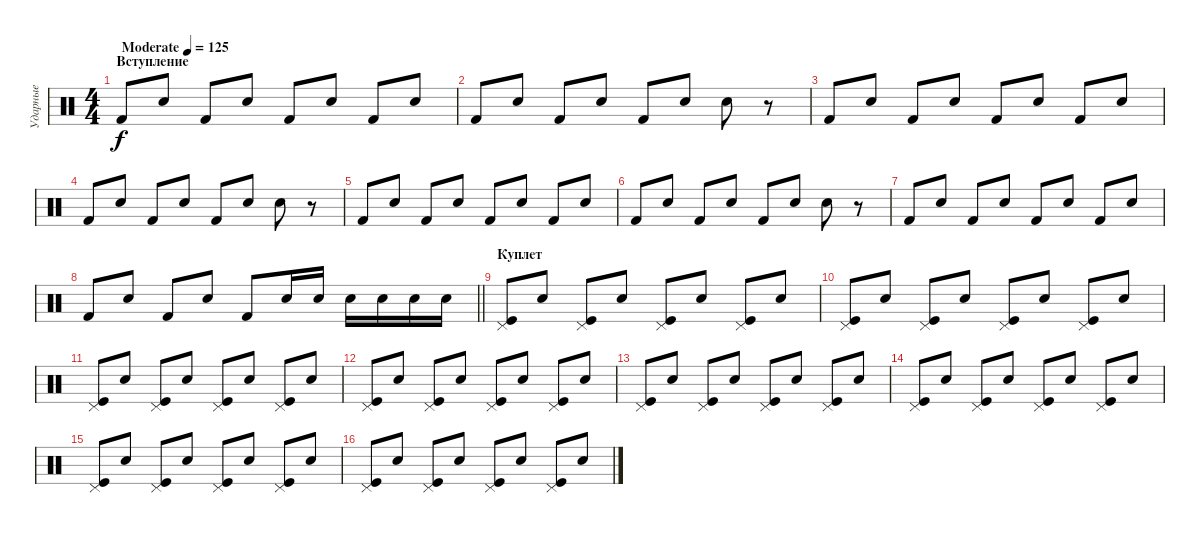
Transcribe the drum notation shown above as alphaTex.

\track ("Ударные" "Ударные") {instrument percussion}
\staff {score}
\articulation defaults
\ts (4 4)
\section ("" "Вступление")
\tempo (125 "Moderate")
\clef neutral
\ks c "Kick (hit) 2".8{dy f} "Electric Snare (hit)".8 "Kick (hit) 2".8 "Electric Snare (hit)".8 "Kick (hit) 2".8 "Electric Snare (hit)".8 "Kick (hit) 2".8 "Electric Snare (hit)".8
|
"Kick (hit) 2".8 "Electric Snare (hit)".8 "Kick (hit) 2".8 "Electric Snare (hit)".8 "Kick (hit) 2".8 "Electric Snare (hit)".8 "Electric Snare (hit)".8 r.8 |
"Kick (hit) 2".8 "Electric Snare (hit)".8 "Kick (hit) 2".8 "Electric Snare (hit)".8 "Kick (hit) 2".8 "Electric Snare (hit)".8 "Kick (hit) 2".8 "Electric Snare (hit)".8 |
"Kick (hit) 2".8 "Electric Snare (hit)".8 "Kick (hit) 2".8 "Electric Snare (hit)".8 "Kick (hit) 2".8 "Electric Snare (hit)".8 "Electric Snare (hit)".8 r.8 |
"Kick (hit) 2".8 "Electric Snare (hit)".8 "Kick (hit) 2".8 "Electric Snare (hit)".8 "Kick (hit) 2".8 "Electric Snare (hit)".8 "Kick (hit) 2".8 "Electric Snare (hit)".8 |
"Kick (hit) 2".8 "Electric Snare (hit)".8 "Kick (hit) 2".8 "Electric Snare (hit)".8 "Kick (hit) 2".8 "Electric Snare (hit)".8 "Electric Snare (hit)".8 r.8 |
"Kick (hit) 2".8 "Electric Snare (hit)".8 "Kick (hit) 2".8 "Electric Snare (hit)".8 "Kick (hit) 2".8 "Electric Snare (hit)".8 "Kick (hit) 2".8 "Electric Snare (hit)".8 |
\barLineRight lightlight "Kick (hit) 2".8 "Electric Snare (hit)".8 "Kick (hit) 2".8 "Electric Snare (hit)".8 "Kick (hit) 2".8 "Electric Snare (hit)".16 "Electric Snare (hit)".16 "Electric Snare (hit)".16 "Electric Snare (hit)".16 "Electric Snare (hit)".16 "Electric Snare (hit)".16
|
\section ("" "Куплет")
("Pedal Hi-Hat (hit)" "Kick (hit)").8 "Snare (hit) 2".8 ("Pedal Hi-Hat (hit)" "Kick (hit)").8 "Snare (hit) 2".8 ("Pedal Hi-Hat (hit)" "Kick (hit)").8 "Snare (hit) 2".8 ("Pedal Hi-Hat (hit)" "Kick (hit)").8 "Snare (hit) 2".8 |
("Pedal Hi-Hat (hit)" "Kick (hit)").8 "Snare (hit) 2".8 ("Pedal Hi-Hat (hit)" "Kick (hit)").8 "Snare (hit) 2".8 ("Pedal Hi-Hat (hit)" "Kick (hit)").8 "Snare (hit) 2".8 ("Pedal Hi-Hat (hit)" "Kick (hit)").8 "Snare (hit) 2".8 |
("Pedal Hi-Hat (hit)" "Kick (hit)").8 "Snare (hit) 2".8 ("Pedal Hi-Hat (hit)" "Kick (hit)").8 "Snare (hit) 2".8 ("Pedal Hi-Hat (hit)" "Kick (hit)").8 "Snare (hit) 2".8 ("Pedal Hi-Hat (hit)" "Kick (hit)").8 "Snare (hit) 2".8 |
("Pedal Hi-Hat (hit)" "Kick (hit)").8 "Snare (hit) 2".8 ("Pedal Hi-Hat (hit)" "Kick (hit)").8 "Snare (hit) 2".8 ("Pedal Hi-Hat (hit)" "Kick (hit)").8 "Snare (hit) 2".8 ("Pedal Hi-Hat (hit)" "Kick (hit)").8 "Snare (hit) 2".8 |
("Pedal Hi-Hat (hit)" "Kick (hit)").8 "Snare (hit) 2".8 ("Pedal Hi-Hat (hit)" "Kick (hit)").8 "Snare (hit) 2".8 ("Pedal Hi-Hat (hit)" "Kick (hit)").8 "Snare (hit) 2".8 ("Pedal Hi-Hat (hit)" "Kick (hit)").8 "Snare (hit) 2".8 |
("Pedal Hi-Hat (hit)" "Kick (hit)").8 "Snare (hit) 2".8 ("Pedal Hi-Hat (hit)" "Kick (hit)").8 "Snare (hit) 2".8 ("Pedal Hi-Hat (hit)" "Kick (hit)").8 "Snare (hit) 2".8 ("Pedal Hi-Hat (hit)" "Kick (hit)").8 "Snare (hit) 2".8 |
("Pedal Hi-Hat (hit)" "Kick (hit)").8 "Snare (hit) 2".8 ("Pedal Hi-Hat (hit)" "Kick (hit)").8 "Snare (hit) 2".8 ("Pedal Hi-Hat (hit)" "Kick (hit)").8 "Snare (hit) 2".8 ("Pedal Hi-Hat (hit)" "Kick (hit)").8 "Snare (hit) 2".8 |
("Pedal Hi-Hat (hit)" "Kick (hit)").8 "Snare (hit) 2".8 ("Pedal Hi-Hat (hit)" "Kick (hit)").8 "Snare (hit) 2".8 ("Pedal Hi-Hat (hit)" "Kick (hit)").8 "Snare (hit) 2".8 ("Pedal Hi-Hat (hit)" "Kick (hit)").8 "Snare (hit) 2".8
